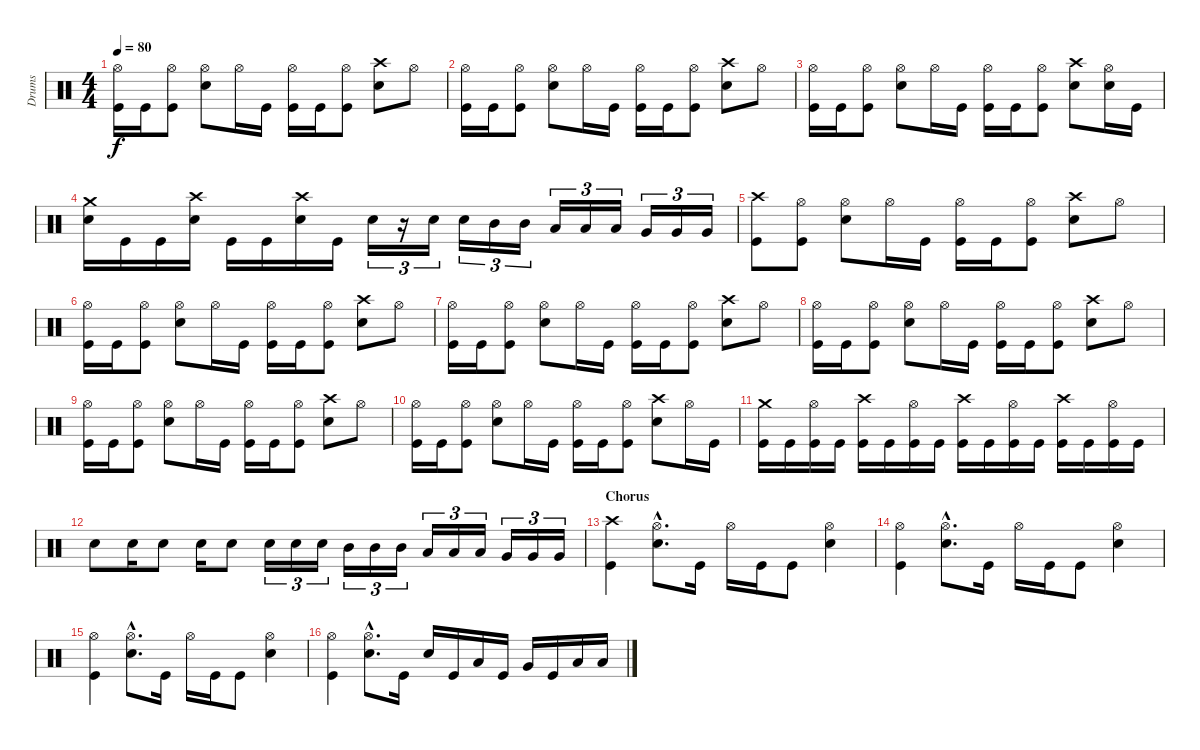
\track ("Drums" "Drums") {instrument percussion}
\staff {score}
\articulation defaults
\ts (4 4)
\tempo 80
\clef neutral
\ks c
("Hi-Hat (open)" "Kick (hit)").16{dy f} "Kick (hit)".16 ("Hi-Hat (open)" "Kick (hit)").8 ("Hi-Hat (open)" "Electric Snare (hit)").8 "Hi-Hat (open)".16 "Kick (hit)".16 ("Hi-Hat (open)" "Kick (hit)").16 "Kick (hit)".16 ("Hi-Hat (open)" "Kick (hit)").8 ("Crash high (hit)" "Electric Snare (hit)").8 "Hi-Hat (open)".8 |
("Hi-Hat (open)" "Kick (hit)").16 "Kick (hit)".16 ("Hi-Hat (open)" "Kick (hit)").8 ("Hi-Hat (open)" "Electric Snare (hit)").8 "Hi-Hat (open)".16 "Kick (hit)".16 ("Hi-Hat (open)" "Kick (hit)").16 "Kick (hit)".16 ("Hi-Hat (open)" "Kick (hit)").8 ("Crash high (hit)" "Electric Snare (hit)").8 "Hi-Hat (open)".8 |
("Hi-Hat (open)" "Kick (hit)").16 "Kick (hit)".16 ("Hi-Hat (open)" "Kick (hit)").8 ("Hi-Hat (open)" "Electric Snare (hit)").8 "Hi-Hat (open)".16 "Kick (hit)".16 ("Hi-Hat (open)" "Kick (hit)").16 "Kick (hit)".16 ("Hi-Hat (open)" "Kick (hit)").8 ("Crash high (hit)" "Electric Snare (hit)").8 ("Hi-Hat (open)" "Electric Snare (hit)").16 "Kick (hit)".16 |
("Crash medium (hit)" "Electric Snare (hit)").16 "Kick (hit)".16 "Kick (hit)".16 ("Crash high (hit)" "Electric Snare (hit)").16 "Kick (hit)".16 "Kick (hit)".16 ("Crash high (hit)" "Electric Snare (hit)").16 "Kick (hit)".16 "Electric Snare (hit)".16{tu (3 2)} r.16{tu (3 2)} "Electric Snare (hit)".16{tu (3 2)} "Electric Snare (hit)".16{tu (3 2)} "Mid Tom (hit)".16{tu (3 2)} "Mid Tom (hit)".16{tu (3 2)} "Low Tom (hit)".16{tu (3 2)} "Low Tom (hit)".16{tu (3 2)} "Low Tom (hit)".16{tu (3 2)} "Very Low Tom (hit)".16{tu (3 2)} "Very Low Tom (hit)".16{tu (3 2)} "Very Low Tom (hit)".16{tu (3 2)} |
("Crash high (hit)" "Kick (hit)").8 ("Hi-Hat (open)" "Kick (hit)").8 ("Hi-Hat (open)" "Electric Snare (hit)").8 "Hi-Hat (open)".16 "Kick (hit)".16 ("Hi-Hat (open)" "Kick (hit)").16 "Kick (hit)".16 ("Hi-Hat (open)" "Kick (hit)").8 ("Crash high (hit)" "Electric Snare (hit)").8 "Hi-Hat (open)".8 |
("Hi-Hat (open)" "Kick (hit)").16 "Kick (hit)".16 ("Hi-Hat (open)" "Kick (hit)").8 ("Hi-Hat (open)" "Electric Snare (hit)").8 "Hi-Hat (open)".16 "Kick (hit)".16 ("Hi-Hat (open)" "Kick (hit)").16 "Kick (hit)".16 ("Hi-Hat (open)" "Kick (hit)").8 ("Crash high (hit)" "Electric Snare (hit)").8 "Hi-Hat (open)".8 |
("Hi-Hat (open)" "Kick (hit)").16 "Kick (hit)".16 ("Hi-Hat (open)" "Kick (hit)").8 ("Hi-Hat (open)" "Electric Snare (hit)").8 "Hi-Hat (open)".16 "Kick (hit)".16 ("Hi-Hat (open)" "Kick (hit)").16 "Kick (hit)".16 ("Hi-Hat (open)" "Kick (hit)").8 ("Crash high (hit)" "Electric Snare (hit)").8 "Hi-Hat (open)".8 |
("Hi-Hat (open)" "Kick (hit)").16 "Kick (hit)".16 ("Hi-Hat (open)" "Kick (hit)").8 ("Hi-Hat (open)" "Electric Snare (hit)").8 "Hi-Hat (open)".16 "Kick (hit)".16 ("Hi-Hat (open)" "Kick (hit)").16 "Kick (hit)".16 ("Hi-Hat (open)" "Kick (hit)").8 ("Crash high (hit)" "Electric Snare (hit)").8 "Hi-Hat (open)".8 |
("Hi-Hat (open)" "Kick (hit)").16 "Kick (hit)".16 ("Hi-Hat (open)" "Kick (hit)").8 ("Hi-Hat (open)" "Electric Snare (hit)").8 "Hi-Hat (open)".16 "Kick (hit)".16 ("Hi-Hat (open)" "Kick (hit)").16 "Kick (hit)".16 ("Hi-Hat (open)" "Kick (hit)").8 ("Crash high (hit)" "Electric Snare (hit)").8 "Hi-Hat (open)".8 |
("Hi-Hat (open)" "Kick (hit)").16 "Kick (hit)".16 ("Hi-Hat (open)" "Kick (hit)").8 ("Hi-Hat (open)" "Electric Snare (hit)").8 "Hi-Hat (open)".16 "Kick (hit)".16 ("Hi-Hat (open)" "Kick (hit)").16 "Kick (hit)".16 ("Hi-Hat (open)" "Kick (hit)").8 ("Crash high (hit)" "Electric Snare (hit)").8 "Hi-Hat (open)".16 "Kick (hit)".16 |
("Crash medium (hit)" "Kick (hit)").16 "Kick (hit)".16 ("Hi-Hat (open)" "Kick (hit)").16 "Kick (hit)".16 ("Crash high (hit)" "Kick (hit)").16 "Kick (hit)".16 ("Hi-Hat (open)" "Kick (hit)").16 "Kick (hit)".16 ("Crash high (hit)" "Kick (hit)").16 "Kick (hit)".16 ("Hi-Hat (open)" "Kick (hit)").16 "Kick (hit)".16 ("Crash high (hit)" "Kick (hit)").16 "Kick (hit)".16 ("Hi-Hat (open)" "Kick (hit)").16 "Kick (hit)".16 |
"Electric Snare (hit)".8 "Electric Snare (hit)".16 "Electric Snare (hit)".8 "Electric Snare (hit)".16 "Electric Snare (hit)".8 "Electric Snare (hit)".16{tu (3 2)} "Electric Snare (hit)".16{tu (3 2)} "Electric Snare (hit)".16{tu (3 2)} "Mid Tom (hit)".16{tu (3 2)} "Mid Tom (hit)".16{tu (3 2)} "Mid Tom (hit)".16{tu (3 2)} "Low Tom (hit)".16{tu (3 2)} "Low Tom (hit)".16{tu (3 2)} "Low Tom (hit)".16{tu (3 2)} "Very Low Tom (hit)".16{tu (3 2)} "Very Low Tom (hit)".16{tu (3 2)} "Very Low Tom (hit)".16{tu (3 2)} |
\section ("" "Chorus")
("Crash high (hit)" "Kick (hit)").4 ("Hi-Hat (open)"{hac} "Electric Snare (hit)"{hac}).8{d} "Kick (hit)".16 "Hi-Hat (open)".16 "Kick (hit)".16 "Kick (hit)".8 ("Hi-Hat (open)" "Electric Snare (hit)").4 |
("Hi-Hat (open)" "Kick (hit)").4 ("Hi-Hat (open)"{hac} "Electric Snare (hit)"{hac}).8{d} "Kick (hit)".16 "Hi-Hat (open)".16 "Kick (hit)".16 "Kick (hit)".8 ("Hi-Hat (open)" "Electric Snare (hit)").4 |
("Hi-Hat (open)" "Kick (hit)").4 ("Hi-Hat (open)"{hac} "Electric Snare (hit)"{hac}).8{d} "Kick (hit)".16 "Hi-Hat (open)".16 "Kick (hit)".16 "Kick (hit)".8 ("Hi-Hat (open)" "Electric Snare (hit)").4 |
("Hi-Hat (open)" "Kick (hit)").4 ("Hi-Hat (open)"{hac} "Electric Snare (hit)"{hac}).8{d} "Kick (hit)".16 "Electric Snare (hit)".16 "Kick (hit)".16 "Low Tom (hit)".16 "Kick (hit)".16 "Very Low Tom (hit)".16 "Kick (hit)".16 "Low Tom (hit)".16 "Low Tom (hit)".16
